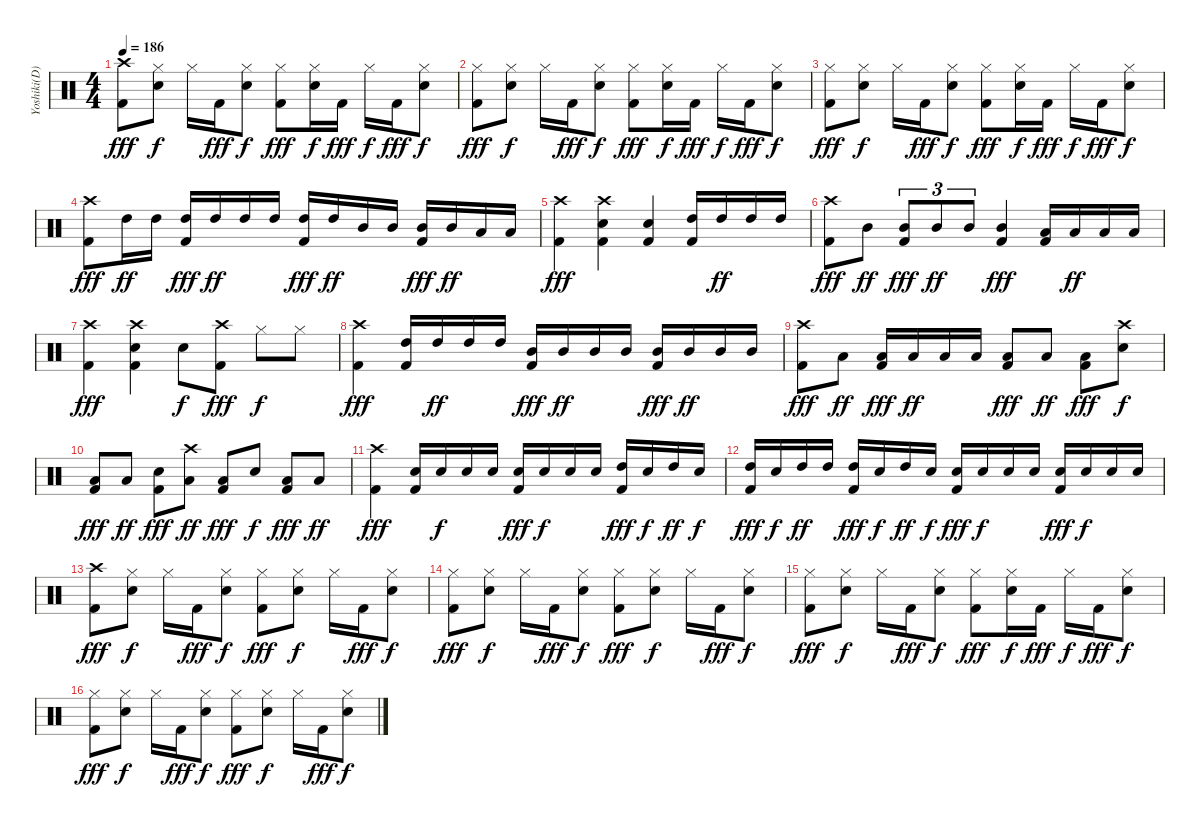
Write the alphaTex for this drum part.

\track ("Yoshiki(D)" "Yoshiki(D)") {instrument percussion}
\staff {score}
\articulation defaults
\ts (4 4)
\tempo 186
\clef neutral
\ks c
("Crash high (hit)" "Kick (hit) 2").8{dy fff} ("Hi-Hat (closed)" "Electric Snare (hit)").8{dy f} "Hi-Hat (closed)".16 "Kick (hit) 2".16{dy fff} ("Hi-Hat (closed)" "Electric Snare (hit)").8{dy f} ("Hi-Hat (closed)" "Kick (hit) 2").8{dy fff} ("Hi-Hat (closed)" "Electric Snare (hit)").16{dy f} "Kick (hit) 2".16{dy fff} "Hi-Hat (closed)".16{dy f} "Kick (hit) 2".16{dy fff} ("Hi-Hat (closed)" "Electric Snare (hit)").8{dy f} |
("Hi-Hat (closed)" "Kick (hit) 2").8{dy fff} ("Hi-Hat (closed)" "Electric Snare (hit)").8{dy f} "Hi-Hat (closed)".16 "Kick (hit) 2".16{dy fff} ("Hi-Hat (closed)" "Electric Snare (hit)").8{dy f} ("Hi-Hat (closed)" "Kick (hit) 2").8{dy fff} ("Hi-Hat (closed)" "Electric Snare (hit)").16{dy f} "Kick (hit) 2".16{dy fff} "Hi-Hat (closed)".16{dy f} "Kick (hit) 2".16{dy fff} ("Hi-Hat (closed)" "Electric Snare (hit)").8{dy f} |
("Hi-Hat (closed)" "Kick (hit) 2").8{dy fff} ("Hi-Hat (closed)" "Electric Snare (hit)").8{dy f} "Hi-Hat (closed)".16 "Kick (hit) 2".16{dy fff} ("Hi-Hat (closed)" "Electric Snare (hit)").8{dy f} ("Hi-Hat (closed)" "Kick (hit) 2").8{dy fff} ("Hi-Hat (closed)" "Electric Snare (hit)").16{dy f} "Kick (hit) 2".16{dy fff} "Hi-Hat (closed)".16{dy f} "Kick (hit) 2".16{dy fff} ("Hi-Hat (closed)" "Electric Snare (hit)").8{dy f} |
("Crash high (hit)" "Kick (hit) 2").8{dy fff} "High Tom (hit)".16{dy ff} "High Tom (hit)".16 ("High Tom (hit)" "Kick (hit) 2").16{dy fff} "High Tom (hit)".16{dy ff} "High Tom (hit)".16 "High Tom (hit)".16 ("High Tom (hit)" "Kick (hit) 2").16{dy fff} "High Tom (hit)".16{dy ff} "Mid Tom (hit)".16 "Mid Tom (hit)".16 ("Mid Tom (hit)" "Kick (hit) 2").16{dy fff} "Mid Tom (hit)".16{dy ff} "Low Tom (hit)".16 "Low Tom (hit)".16 |
("Crash high (hit)" "Kick (hit) 2").4{dy fff} ("Crash high (hit)" "Electric Snare (hit)" "Kick (hit) 2").4 ("Electric Snare (hit)" "Kick (hit) 2").4 ("High Tom (hit)" "Kick (hit) 2").16 "High Tom (hit)".16{dy ff} "High Tom (hit)".16 "High Tom (hit)".16 |
("Crash high (hit)" "Kick (hit) 2").8{dy fff} "Mid Tom (hit)".8{dy ff} ("Mid Tom (hit)" "Kick (hit) 2").8{tu (3 2) dy fff} "Mid Tom (hit)".8{tu (3 2) dy ff} "Mid Tom (hit)".8{tu (3 2)} ("Mid Tom (hit)" "Kick (hit) 2").4{dy fff} ("Low Tom (hit)" "Kick (hit) 2").16 "Low Tom (hit)".16{dy ff} "Low Tom (hit)".16 "Low Tom (hit)".16 |
("Crash high (hit)" "Kick (hit) 2").4{dy fff} ("Crash high (hit)" "Electric Snare (hit)" "Kick (hit) 2").4 "Electric Snare (hit)".8{dy f} ("Crash high (hit)" "Kick (hit) 2").8{dy fff} "Hi-Hat (closed)".8{dy f} "Hi-Hat (closed)".8 |
("Crash high (hit)" "Kick (hit) 2").4{dy fff} ("High Tom (hit)" "Kick (hit) 2").16 "High Tom (hit)".16{dy ff} "High Tom (hit)".16 "High Tom (hit)".16 ("Mid Tom (hit)" "Kick (hit) 2").16{dy fff} "Mid Tom (hit)".16{dy ff} "Mid Tom (hit)".16 "Mid Tom (hit)".16 ("Mid Tom (hit)" "Kick (hit) 2").16{dy fff} "Mid Tom (hit)".16{dy ff} "Mid Tom (hit)".16 "Mid Tom (hit)".16 |
("Crash high (hit)" "Kick (hit) 2").8{dy fff} "Low Tom (hit)".8{dy ff} ("Low Tom (hit)" "Kick (hit) 2").16{dy fff} "Low Tom (hit)".16{dy ff} "Low Tom (hit)".16 "Low Tom (hit)".16 ("Low Tom (hit)" "Kick (hit) 2").8{dy fff} "Low Tom (hit)".8{dy ff} ("Low Tom (hit)" "Kick (hit) 2").8{dy fff} ("Crash high (hit)" "Electric Snare (hit)").8{dy f} |
("Low Tom (hit)" "Kick (hit) 2").8{dy fff} "Low Tom (hit)".8{dy ff} ("Electric Snare (hit)" "Kick (hit) 2").8{dy fff} ("Crash high (hit)" "Low Tom (hit)").8{dy ff} ("Low Tom (hit)" "Kick (hit) 2").8{dy fff} "Electric Snare (hit)".8{dy f} ("Low Tom (hit)" "Kick (hit) 2").8{dy fff} "Low Tom (hit)".8{dy ff} |
("Crash high (hit)" "Kick (hit) 2").4{dy fff} ("Electric Snare (hit)" "Kick (hit) 2").16 "Electric Snare (hit)".16{dy f} "Electric Snare (hit)".16 "Electric Snare (hit)".16 ("Electric Snare (hit)" "Kick (hit) 2").16{dy fff} "Electric Snare (hit)".16{dy f} "Electric Snare (hit)".16 "Electric Snare (hit)".16 ("High Tom (hit)" "Kick (hit) 2").16{dy fff} "Electric Snare (hit)".16{dy f} "High Tom (hit)".16{dy ff} "Electric Snare (hit)".16{dy f} |
("High Tom (hit)" "Kick (hit) 2").16{dy fff} "Electric Snare (hit)".16{dy f} "High Tom (hit)".16{dy ff} "High Tom (hit)".16 ("High Tom (hit)" "Kick (hit) 2").16{dy fff} "Electric Snare (hit)".16{dy f} "High Tom (hit)".16{dy ff} "Electric Snare (hit)".16{dy f} ("Electric Snare (hit)" "Kick (hit) 2").16{dy fff} "Electric Snare (hit)".16{dy f} "Electric Snare (hit)".16 "Electric Snare (hit)".16 ("Electric Snare (hit)" "Kick (hit) 2").16{dy fff} "Electric Snare (hit)".16{dy f} "Electric Snare (hit)".16 "Electric Snare (hit)".16 |
("Crash high (hit)" "Kick (hit) 2").8{dy fff} ("Hi-Hat (closed)" "Electric Snare (hit)").8{dy f} "Hi-Hat (closed)".16 "Kick (hit) 2".16{dy fff} ("Hi-Hat (closed)" "Electric Snare (hit)").8{dy f} ("Hi-Hat (closed)" "Kick (hit) 2").8{dy fff} ("Hi-Hat (closed)" "Electric Snare (hit)").8{dy f} "Hi-Hat (closed)".16 "Kick (hit) 2".16{dy fff} ("Hi-Hat (closed)" "Electric Snare (hit)").8{dy f} |
("Hi-Hat (closed)" "Kick (hit) 2").8{dy fff} ("Hi-Hat (closed)" "Electric Snare (hit)").8{dy f} "Hi-Hat (closed)".16 "Kick (hit) 2".16{dy fff} ("Hi-Hat (closed)" "Electric Snare (hit)").8{dy f} ("Hi-Hat (closed)" "Kick (hit) 2").8{dy fff} ("Hi-Hat (closed)" "Electric Snare (hit)").8{dy f} "Hi-Hat (closed)".16 "Kick (hit) 2".16{dy fff} ("Hi-Hat (closed)" "Electric Snare (hit)").8{dy f} |
("Hi-Hat (closed)" "Kick (hit) 2").8{dy fff} ("Hi-Hat (closed)" "Electric Snare (hit)").8{dy f} "Hi-Hat (closed)".16 "Kick (hit) 2".16{dy fff} ("Hi-Hat (closed)" "Electric Snare (hit)").8{dy f} ("Hi-Hat (closed)" "Kick (hit) 2").8{dy fff} ("Hi-Hat (closed)" "Electric Snare (hit)").16{dy f} "Kick (hit) 2".16{dy fff} "Hi-Hat (closed)".16{dy f} "Kick (hit) 2".16{dy fff} ("Hi-Hat (closed)" "Electric Snare (hit)").8{dy f} |
("Hi-Hat (closed)" "Kick (hit) 2").8{dy fff} ("Hi-Hat (closed)" "Electric Snare (hit)").8{dy f} "Hi-Hat (closed)".16 "Kick (hit) 2".16{dy fff} ("Hi-Hat (closed)" "Electric Snare (hit)").8{dy f} ("Hi-Hat (closed)" "Kick (hit) 2").8{dy fff} ("Hi-Hat (closed)" "Electric Snare (hit)").8{dy f} "Hi-Hat (closed)".16 "Kick (hit) 2".16{dy fff} ("Hi-Hat (closed)" "Electric Snare (hit)").8{dy f}
